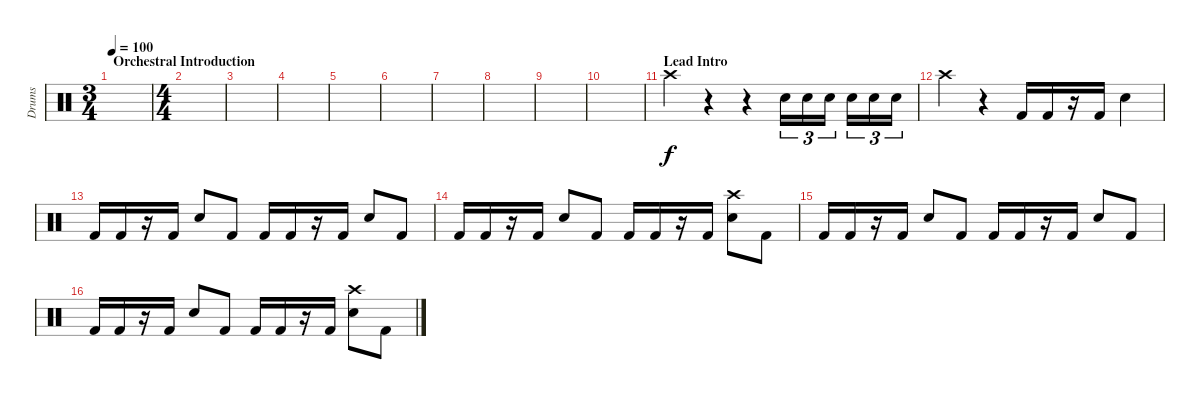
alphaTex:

\track ("Drums" "Drums") {instrument percussion}
\staff {score}
\articulation defaults
\ts (3 4)
\section ("" "Orchestral Introduction")
\tempo 100
\clef neutral
\ks c
|
\ts (4 4)
|
|
|
|
|
|
|
|
|
\section ("" "Lead Intro")
"Crash high (hit)".4 r.4 r.4 "Electric Snare (hit)".16{tu (3 2)} "Electric Snare (hit)".16{tu (3 2)} "Electric Snare (hit)".16{tu (3 2)} "Electric Snare (hit)".16{tu (3 2)} "Electric Snare (hit)".16{tu (3 2)} "Electric Snare (hit)".16{tu (3 2)} |
"Crash high (hit)".4 r.4 "Kick (hit) 2".16 "Kick (hit) 2".16 r.16 "Kick (hit) 2".16 "Electric Snare (hit)".4 |
"Kick (hit) 2".16 "Kick (hit) 2".16 r.16 "Kick (hit) 2".16 "Electric Snare (hit)".8 "Kick (hit) 2".8 "Kick (hit) 2".16 "Kick (hit) 2".16 r.16 "Kick (hit) 2".16 "Electric Snare (hit)".8 "Kick (hit) 2".8 |
"Kick (hit) 2".16 "Kick (hit) 2".16 r.16 "Kick (hit) 2".16 "Electric Snare (hit)".8 "Kick (hit) 2".8 "Kick (hit) 2".16 "Kick (hit) 2".16 r.16 "Kick (hit) 2".16 ("Crash high (hit)" "Electric Snare (hit)").8 "Kick (hit) 2".8 |
"Kick (hit) 2".16 "Kick (hit) 2".16 r.16 "Kick (hit) 2".16 "Electric Snare (hit)".8 "Kick (hit) 2".8 "Kick (hit) 2".16 "Kick (hit) 2".16 r.16 "Kick (hit) 2".16 "Electric Snare (hit)".8 "Kick (hit) 2".8 |
"Kick (hit) 2".16 "Kick (hit) 2".16 r.16 "Kick (hit) 2".16 "Electric Snare (hit)".8 "Kick (hit) 2".8 "Kick (hit) 2".16 "Kick (hit) 2".16 r.16 "Kick (hit) 2".16 ("Crash high (hit)" "Electric Snare (hit)").8 "Kick (hit) 2".8
